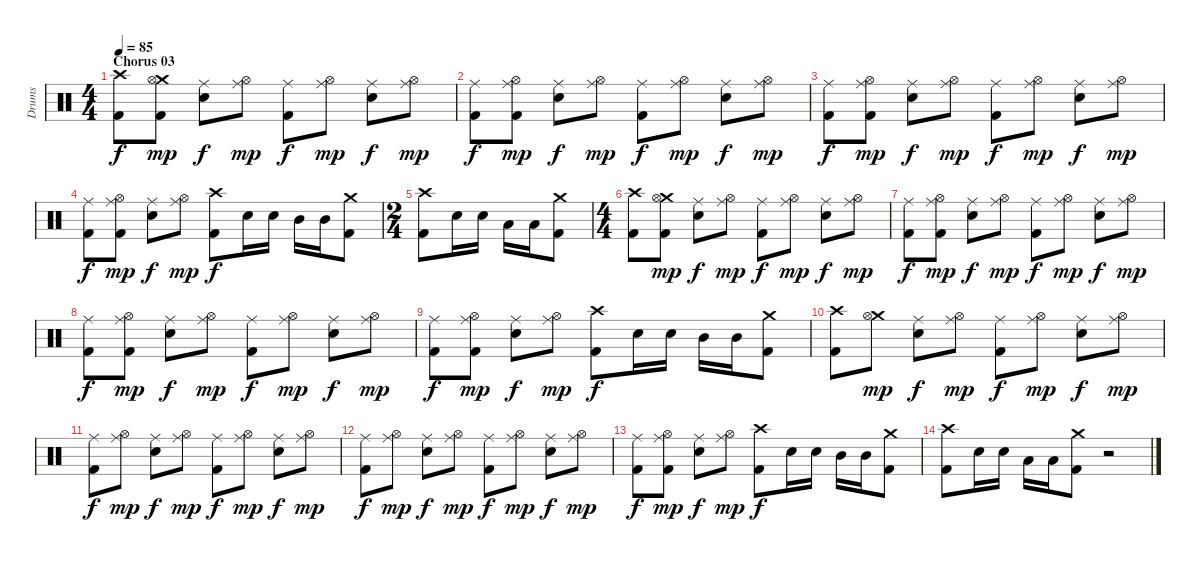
\track ("Drums" "Drums") {instrument percussion}
\staff {score}
\articulation defaults
\ts (4 4)
\section ("" "Chorus 03")
\tempo 85
\clef neutral
\ks c
("Crash high (hit)" "Kick (hit) 2").8{dy f} ("Crash medium (hit)" "Hi-Hat (open)" "Kick (hit) 2").8{dy mp} ("Ride (middle)" "Snare (hit) 2").8{dy f} ("Ride (middle)" "Hi-Hat (open)").8{dy mp} ("Ride (middle)" "Kick (hit) 2").8{dy f} ("Ride (middle)" "Hi-Hat (open)").8{dy mp} ("Ride (middle)" "Snare (hit) 2").8{dy f} ("Ride (middle)" "Hi-Hat (open)").8{dy mp} |
("Ride (middle)" "Kick (hit) 2").8{dy f} ("Ride (middle)" "Hi-Hat (open)" "Kick (hit) 2").8{dy mp} ("Ride (middle)" "Snare (hit) 2").8{dy f} ("Ride (middle)" "Hi-Hat (open)").8{dy mp} ("Ride (middle)" "Kick (hit) 2").8{dy f} ("Ride (middle)" "Hi-Hat (open)").8{dy mp} ("Ride (middle)" "Snare (hit) 2").8{dy f} ("Ride (middle)" "Hi-Hat (open)").8{dy mp} |
("Ride (middle)" "Kick (hit) 2").8{dy f} ("Ride (middle)" "Hi-Hat (open)" "Kick (hit) 2").8{dy mp} ("Ride (middle)" "Snare (hit) 2").8{dy f} ("Ride (middle)" "Hi-Hat (open)").8{dy mp} ("Ride (middle)" "Kick (hit) 2").8{dy f} ("Ride (middle)" "Hi-Hat (open)").8{dy mp} ("Ride (middle)" "Snare (hit) 2").8{dy f} ("Ride (middle)" "Hi-Hat (open)").8{dy mp} |
("Ride (middle)" "Kick (hit) 2").8{dy f} ("Ride (middle)" "Hi-Hat (open)" "Kick (hit) 2").8{dy mp} ("Ride (middle)" "Snare (hit) 2").8{dy f} ("Ride (middle)" "Hi-Hat (open)").8{dy mp} ("Crash high (hit)" "Kick (hit) 2").8{dy f beam merge} "Snare (hit) 2".16{beam merge} "Snare (hit) 2".16 "Mid Tom (hit)".16 "Mid Tom (hit)".16{beam merge} ("Crash medium (hit)" "Kick (hit) 2").8 |
\ts (2 4)
("Crash high (hit)" "Kick (hit) 2").8{beam merge} "Snare (hit) 2".16{beam merge} "Snare (hit) 2".16 "Low Tom (hit)".16 "Low Tom (hit)".16{beam merge} ("Crash medium (hit)" "Kick (hit) 2").8 |
\ts (4 4)
("Crash high (hit)" "Kick (hit) 2").8 ("Crash medium (hit)" "Hi-Hat (open)" "Kick (hit) 2").8{dy mp} ("Ride (middle)" "Snare (hit) 2").8{dy f} ("Ride (middle)" "Hi-Hat (open)").8{dy mp} ("Ride (middle)" "Kick (hit) 2").8{dy f} ("Ride (middle)" "Hi-Hat (open)").8{dy mp} ("Ride (middle)" "Snare (hit) 2").8{dy f} ("Ride (middle)" "Hi-Hat (open)").8{dy mp} |
("Ride (middle)" "Kick (hit) 2").8{dy f} ("Ride (middle)" "Hi-Hat (open)" "Kick (hit) 2").8{dy mp} ("Ride (middle)" "Snare (hit) 2").8{dy f} ("Ride (middle)" "Hi-Hat (open)").8{dy mp} ("Ride (middle)" "Kick (hit) 2").8{dy f} ("Ride (middle)" "Hi-Hat (open)").8{dy mp} ("Ride (middle)" "Snare (hit) 2").8{dy f} ("Ride (middle)" "Hi-Hat (open)").8{dy mp} |
("Ride (middle)" "Kick (hit) 2").8{dy f} ("Ride (middle)" "Hi-Hat (open)" "Kick (hit) 2").8{dy mp} ("Ride (middle)" "Snare (hit) 2").8{dy f} ("Ride (middle)" "Hi-Hat (open)").8{dy mp} ("Ride (middle)" "Kick (hit) 2").8{dy f} ("Ride (middle)" "Hi-Hat (open)").8{dy mp} ("Ride (middle)" "Snare (hit) 2").8{dy f} ("Ride (middle)" "Hi-Hat (open)").8{dy mp} |
("Ride (middle)" "Kick (hit) 2").8{dy f} ("Ride (middle)" "Hi-Hat (open)" "Kick (hit) 2").8{dy mp} ("Ride (middle)" "Snare (hit) 2").8{dy f} ("Ride (middle)" "Hi-Hat (open)").8{dy mp} ("Crash high (hit)" "Kick (hit) 2").8{dy f beam merge} "Snare (hit) 2".16{beam merge} "Snare (hit) 2".16 "Mid Tom (hit)".16 "Mid Tom (hit)".16{beam merge} ("Crash medium (hit)" "Kick (hit) 2").8 |
("Crash high (hit)" "Kick (hit) 2").8 ("Crash medium (hit)" "Hi-Hat (open)").8{dy mp} ("Ride (middle)" "Snare (hit) 2").8{dy f} ("Ride (middle)" "Hi-Hat (open)").8{dy mp} ("Ride (middle)" "Kick (hit) 2").8{dy f} ("Ride (middle)" "Hi-Hat (open)").8{dy mp} ("Ride (middle)" "Snare (hit) 2").8{dy f} ("Ride (middle)" "Hi-Hat (open)").8{dy mp} |
("Ride (middle)" "Kick (hit) 2").8{dy f} ("Ride (middle)" "Hi-Hat (open)").8{dy mp} ("Ride (middle)" "Snare (hit) 2").8{dy f} ("Ride (middle)" "Hi-Hat (open)").8{dy mp} ("Ride (middle)" "Kick (hit) 2").8{dy f} ("Ride (middle)" "Hi-Hat (open)").8{dy mp} ("Ride (middle)" "Snare (hit) 2").8{dy f} ("Ride (middle)" "Hi-Hat (open)").8{dy mp} |
("Ride (middle)" "Kick (hit) 2").8{dy f} ("Ride (middle)" "Hi-Hat (open)").8{dy mp} ("Ride (middle)" "Snare (hit) 2").8{dy f} ("Ride (middle)" "Hi-Hat (open)").8{dy mp} ("Ride (middle)" "Kick (hit) 2").8{dy f} ("Ride (middle)" "Hi-Hat (open)").8{dy mp} ("Ride (middle)" "Snare (hit) 2").8{dy f} ("Ride (middle)" "Hi-Hat (open)").8{dy mp} |
("Ride (middle)" "Kick (hit) 2").8{dy f} ("Ride (middle)" "Hi-Hat (open)" "Kick (hit) 2").8{dy mp} ("Ride (middle)" "Snare (hit) 2").8{dy f} ("Ride (middle)" "Hi-Hat (open)").8{dy mp} ("Crash high (hit)" "Kick (hit) 2").8{dy f beam merge} "Snare (hit) 2".16{beam merge} "Snare (hit) 2".16 "Mid Tom (hit)".16 "Mid Tom (hit)".16{beam merge} ("Crash medium (hit)" "Kick (hit) 2").8 |
("Crash high (hit)" "Kick (hit) 2").8{beam merge} "Snare (hit) 2".16{beam merge} "Snare (hit) 2".16 "Low Tom (hit)".16 "Low Tom (hit)".16{beam merge} ("Crash medium (hit)" "Kick (hit) 2").8{beam merge} r.2
